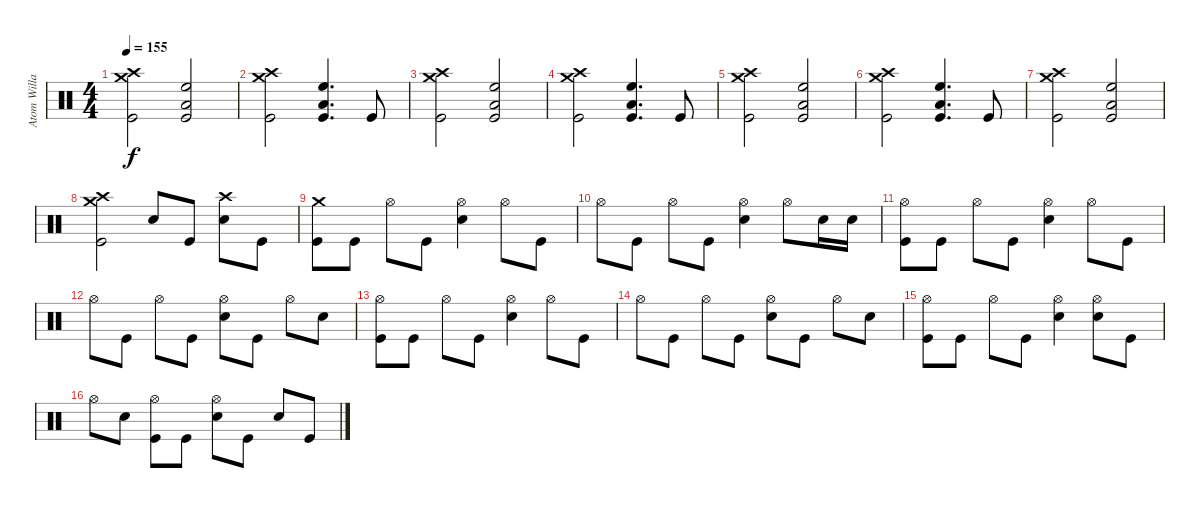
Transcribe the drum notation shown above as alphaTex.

\track ("Atom Willard Drums" "Atom Willa") {instrument percussion}
\staff {score}
\articulation defaults
\ts (4 4)
\tempo 155
\clef neutral
\ks c
("Kick (hit)" "Crash high (hit)" "Crash medium (hit)").2{dy f} ("Kick (hit)" "Low Tom (hit)" "High Floor Tom (hit)").2 |
("Kick (hit)" "Crash high (hit)" "Crash medium (hit)").2 ("Kick (hit)" "Low Tom (hit)" "High Floor Tom (hit)").4{d} "Kick (hit)".8 |
("Kick (hit)" "Crash high (hit)" "Crash medium (hit)").2 ("Kick (hit)" "Low Tom (hit)" "High Floor Tom (hit)").2 |
("Kick (hit)" "Crash high (hit)" "Crash medium (hit)").2 ("Kick (hit)" "Low Tom (hit)" "High Floor Tom (hit)").4{d} "Kick (hit)".8 |
("Kick (hit)" "Crash high (hit)" "Crash medium (hit)").2 ("Kick (hit)" "Low Tom (hit)" "High Floor Tom (hit)").2 |
("Kick (hit)" "Crash high (hit)" "Crash medium (hit)").2 ("Kick (hit)" "Low Tom (hit)" "High Floor Tom (hit)").4{d} "Kick (hit)".8 |
("Kick (hit)" "Crash high (hit)" "Crash medium (hit)").2 ("Kick (hit)" "Low Tom (hit)" "High Floor Tom (hit)").2 |
("Kick (hit)" "Crash high (hit)" "Crash medium (hit)").2 "Electric Snare (hit)".8 "Kick (hit)".8 ("Electric Snare (hit)" "Crash high (hit)").8 "Kick (hit)".8 |
("Crash medium (hit)" "Kick (hit)").8 "Kick (hit)".8 "Hi-Hat (open)".8 "Kick (hit)".8 ("Electric Snare (hit)" "Hi-Hat (open)").4 "Hi-Hat (open)".8 "Kick (hit)".8 |
"Hi-Hat (open)".8 "Kick (hit)".8 "Hi-Hat (open)".8 "Kick (hit)".8 ("Electric Snare (hit)" "Hi-Hat (open)").4 "Hi-Hat (open)".8 "Electric Snare (hit)".16 "Electric Snare (hit)".16 |
("Kick (hit)" "Hi-Hat (open)").8 "Kick (hit)".8 "Hi-Hat (open)".8 "Kick (hit)".8 ("Electric Snare (hit)" "Hi-Hat (open)").4 "Hi-Hat (open)".8 "Kick (hit)".8 |
"Hi-Hat (open)".8 "Kick (hit)".8 "Hi-Hat (open)".8 "Kick (hit)".8 ("Electric Snare (hit)" "Hi-Hat (open)").8 "Kick (hit)".8 "Hi-Hat (open)".8 "Electric Snare (hit)".8 |
("Kick (hit)" "Hi-Hat (open)").8 "Kick (hit)".8 "Hi-Hat (open)".8 "Kick (hit)".8 ("Electric Snare (hit)" "Hi-Hat (open)").4 "Hi-Hat (open)".8 "Kick (hit)".8 |
"Hi-Hat (open)".8 "Kick (hit)".8 "Hi-Hat (open)".8 "Kick (hit)".8 ("Electric Snare (hit)" "Hi-Hat (open)").8 "Kick (hit)".8 "Hi-Hat (open)".8 "Electric Snare (hit)".8 |
("Kick (hit)" "Hi-Hat (open)").8 "Kick (hit)".8 "Hi-Hat (open)".8 "Kick (hit)".8 ("Electric Snare (hit)" "Hi-Hat (open)").4 ("Electric Snare (hit)" "Hi-Hat (open)").8 "Kick (hit)".8 |
"Hi-Hat (open)".8 "Electric Snare (hit)".8 ("Kick (hit)" "Hi-Hat (open)").8 "Kick (hit)".8 ("Electric Snare (hit)" "Hi-Hat (open)").8 "Kick (hit)".8 "Electric Snare (hit)".8 "Kick (hit)".8
